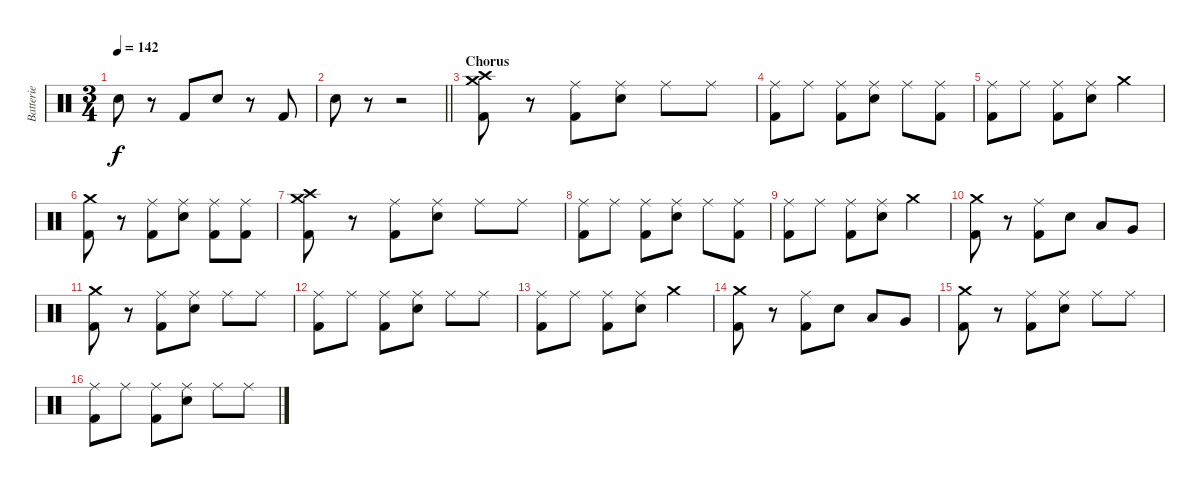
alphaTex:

\track ("Batterie" "Batterie") {instrument percussion}
\staff {score}
\articulation defaults
\ts (3 4)
\tempo 142
\clef neutral
\ks c "Electric Snare (hit)".8{dy f}
r.8 "Kick (hit) 2".8 "Electric Snare (hit)".8 r.8 "Kick (hit) 2".8 |
\barLineRight lightlight "Electric Snare (hit)".8
r.8 r.2 |
\section ("" "Chorus")
("Crash medium (hit)" "Crash high (hit)" "Kick (hit) 2").8 r.8 ("Ride (middle)" "Kick (hit) 2").8 ("Ride (middle)" "Electric Snare (hit)").8 "Ride (middle)".8 "Ride (middle)".8 |
("Ride (middle)" "Kick (hit) 2").8 "Ride (middle)".8 ("Ride (middle)" "Kick (hit) 2").8 ("Ride (middle)" "Electric Snare (hit)").8 "Ride (middle)".8 ("Ride (middle)" "Kick (hit) 2").8 |
("Ride (middle)" "Kick (hit) 2").8 "Ride (middle)".8 ("Ride (middle)" "Kick (hit) 2").8 ("Ride (middle)" "Electric Snare (hit)").8 "Crash medium (hit)".4 |
("Crash medium (hit)" "Kick (hit) 2").8 r.8 ("Ride (middle)" "Kick (hit) 2").8 ("Ride (middle)" "Electric Snare (hit)").8 ("Ride (middle)" "Kick (hit) 2").8 ("Ride (middle)" "Kick (hit) 2").8 |
("Crash medium (hit)" "Crash high (hit)" "Kick (hit) 2").8 r.8 ("Ride (middle)" "Kick (hit) 2").8 ("Ride (middle)" "Electric Snare (hit)").8 "Ride (middle)".8 "Ride (middle)".8 |
("Ride (middle)" "Kick (hit) 2").8 "Ride (middle)".8 ("Ride (middle)" "Kick (hit) 2").8 ("Ride (middle)" "Electric Snare (hit)").8 "Ride (middle)".8 ("Ride (middle)" "Kick (hit) 2").8 |
("Ride (middle)" "Kick (hit) 2").8 "Ride (middle)".8 ("Ride (middle)" "Kick (hit) 2").8 ("Ride (middle)" "Electric Snare (hit)").8 "Crash medium (hit)".4 |
("Crash medium (hit)" "Kick (hit) 2").8 r.8 ("Ride (middle)" "Kick (hit) 2").8 "Electric Snare (hit)".8 "Low Tom (hit)".8 "Very Low Tom (hit)".8 |
("Crash medium (hit)" "Kick (hit) 2").8 r.8 ("Ride (middle)" "Kick (hit) 2").8 ("Ride (middle)" "Electric Snare (hit)").8 "Ride (middle)".8 "Ride (middle)".8 |
("Ride (middle)" "Kick (hit) 2").8 "Ride (middle)".8 ("Ride (middle)" "Kick (hit) 2").8 ("Ride (middle)" "Electric Snare (hit)").8 "Ride (middle)".8 "Ride (middle)".8 |
("Ride (middle)" "Kick (hit) 2").8 "Ride (middle)".8 ("Ride (middle)" "Kick (hit) 2").8 ("Ride (middle)" "Electric Snare (hit)").8 "Crash medium (hit)".4 |
("Crash medium (hit)" "Kick (hit) 2").8 r.8 ("Ride (middle)" "Kick (hit) 2").8 "Electric Snare (hit)".8 "Low Tom (hit)".8 "Very Low Tom (hit)".8 |
("Crash medium (hit)" "Kick (hit) 2").8 r.8 ("Ride (middle)" "Kick (hit) 2").8 ("Ride (middle)" "Electric Snare (hit)").8 "Ride (middle)".8 "Ride (middle)".8 |
("Ride (middle)" "Kick (hit) 2").8 "Ride (middle)".8 ("Ride (middle)" "Kick (hit) 2").8 ("Ride (middle)" "Electric Snare (hit)").8 "Ride (middle)".8 "Ride (middle)".8
